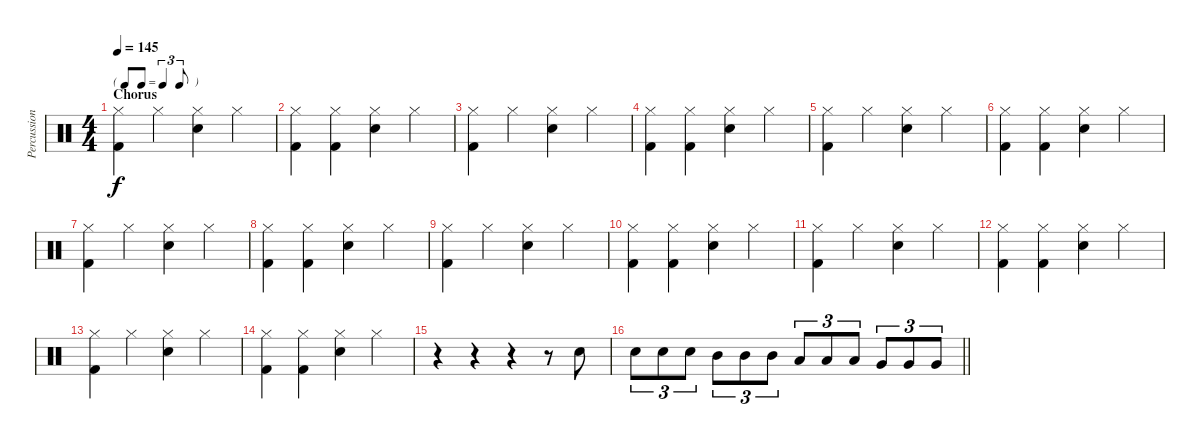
\track ("Percussion" "Percussion") {instrument percussion}
\staff {score}
\articulation defaults
\ts (4 4)
\tf triplet8th
\section ("" "Chorus")
\tempo 145
\clef neutral
\ks c
("Hi-Hat (closed)" "Kick (hit) 2").4{dy f} "Hi-Hat (closed)".4 ("Hi-Hat (closed)" "Electric Snare (hit)").4 "Hi-Hat (closed)".4 |
("Hi-Hat (closed)" "Kick (hit) 2").4 ("Hi-Hat (closed)" "Kick (hit) 2").4 ("Hi-Hat (closed)" "Electric Snare (hit)").4 "Hi-Hat (closed)".4 |
("Hi-Hat (closed)" "Kick (hit) 2").4 "Hi-Hat (closed)".4 ("Hi-Hat (closed)" "Electric Snare (hit)").4 "Hi-Hat (closed)".4 |
("Hi-Hat (closed)" "Kick (hit) 2").4 ("Hi-Hat (closed)" "Kick (hit) 2").4 ("Hi-Hat (closed)" "Electric Snare (hit)").4 "Hi-Hat (closed)".4 |
("Hi-Hat (closed)" "Kick (hit) 2").4 "Hi-Hat (closed)".4 ("Hi-Hat (closed)" "Electric Snare (hit)").4 "Hi-Hat (closed)".4 |
("Hi-Hat (closed)" "Kick (hit) 2").4 ("Hi-Hat (closed)" "Kick (hit) 2").4 ("Hi-Hat (closed)" "Electric Snare (hit)").4 "Hi-Hat (closed)".4 |
("Hi-Hat (closed)" "Kick (hit) 2").4 "Hi-Hat (closed)".4 ("Hi-Hat (closed)" "Electric Snare (hit)").4 "Hi-Hat (closed)".4 |
("Hi-Hat (closed)" "Kick (hit) 2").4 ("Hi-Hat (closed)" "Kick (hit) 2").4 ("Hi-Hat (closed)" "Electric Snare (hit)").4 "Hi-Hat (closed)".4 |
("Hi-Hat (closed)" "Kick (hit) 2").4 "Hi-Hat (closed)".4 ("Hi-Hat (closed)" "Electric Snare (hit)").4 "Hi-Hat (closed)".4 |
("Hi-Hat (closed)" "Kick (hit) 2").4 ("Hi-Hat (closed)" "Kick (hit) 2").4 ("Hi-Hat (closed)" "Electric Snare (hit)").4 "Hi-Hat (closed)".4 |
("Hi-Hat (closed)" "Kick (hit) 2").4 "Hi-Hat (closed)".4 ("Hi-Hat (closed)" "Electric Snare (hit)").4 "Hi-Hat (closed)".4 |
("Hi-Hat (closed)" "Kick (hit) 2").4 ("Hi-Hat (closed)" "Kick (hit) 2").4 ("Hi-Hat (closed)" "Electric Snare (hit)").4 "Hi-Hat (closed)".4 |
("Hi-Hat (closed)" "Kick (hit) 2").4 "Hi-Hat (closed)".4 ("Hi-Hat (closed)" "Electric Snare (hit)").4 "Hi-Hat (closed)".4 |
("Hi-Hat (closed)" "Kick (hit) 2").4 ("Hi-Hat (closed)" "Kick (hit) 2").4 ("Hi-Hat (closed)" "Electric Snare (hit)").4 "Hi-Hat (closed)".4 |
r.4 r.4 r.4 r.8 "Snare (hit) 2".8 |
\barLineRight lightlight "Electric Snare (hit)".8{tu (3 2)} "Electric Snare (hit)".8{tu (3 2)} "Electric Snare (hit)".8{tu (3 2)} "Mid Tom (hit)".8{tu (3 2)} "Mid Tom (hit)".8{tu (3 2)} "Mid Tom (hit)".8{tu (3 2)} "Low Tom (hit)".8{tu (3 2)} "Low Tom (hit)".8{tu (3 2)} "Low Tom (hit)".8{tu (3 2)} "Very Low Tom (hit)".8{tu (3 2)} "Very Low Tom (hit)".8{tu (3 2)} "Very Low Tom (hit)".8{tu (3 2)}
